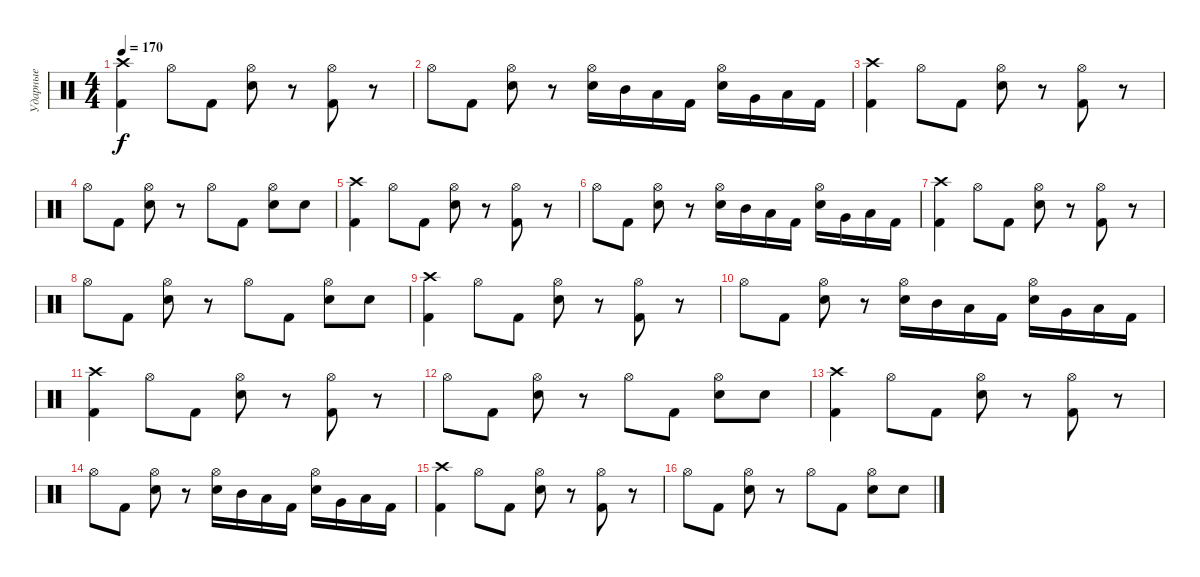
\track ("Ударные" "Ударные") {instrument percussion}
\staff {score}
\articulation defaults
\ts (4 4)
\tempo 170
\clef neutral
\ks c
("Crash high (hit)" "Kick (hit) 2").4{dy f} "Hi-Hat (open)".8 "Kick (hit) 2".8 ("Hi-Hat (open)" "Electric Snare (hit)").8 r.8 ("Hi-Hat (open)" "Kick (hit) 2").8 r.8 |
"Hi-Hat (open)".8 "Kick (hit) 2".8 ("Hi-Hat (open)" "Electric Snare (hit)").8 r.8 ("Hi-Hat (open)" "Electric Snare (hit)").16 "Mid Tom (hit)".16 "Low Tom (hit)".16 "Kick (hit) 2".16 ("Hi-Hat (open)" "Electric Snare (hit)").16 "Very Low Tom (hit)".16 "Low Floor Tom (hit)".16 "Kick (hit) 2".16 |
("Crash high (hit)" "Kick (hit) 2").4 "Hi-Hat (open)".8 "Kick (hit) 2".8 ("Hi-Hat (open)" "Electric Snare (hit)").8 r.8 ("Hi-Hat (open)" "Kick (hit) 2").8 r.8 |
"Hi-Hat (open)".8 "Kick (hit) 2".8 ("Hi-Hat (open)" "Electric Snare (hit)").8 r.8 "Hi-Hat (open)".8 "Kick (hit) 2".8 ("Hi-Hat (open)" "Electric Snare (hit)").8 "Electric Snare (hit)".8 |
("Crash high (hit)" "Kick (hit) 2").4 "Hi-Hat (open)".8 "Kick (hit) 2".8 ("Hi-Hat (open)" "Electric Snare (hit)").8 r.8 ("Hi-Hat (open)" "Kick (hit) 2").8 r.8 |
"Hi-Hat (open)".8 "Kick (hit) 2".8 ("Hi-Hat (open)" "Electric Snare (hit)").8 r.8 ("Hi-Hat (open)" "Electric Snare (hit)").16 "Mid Tom (hit)".16 "Low Tom (hit)".16 "Kick (hit) 2".16 ("Hi-Hat (open)" "Electric Snare (hit)").16 "Very Low Tom (hit)".16 "Low Floor Tom (hit)".16 "Kick (hit) 2".16 |
("Crash high (hit)" "Kick (hit) 2").4 "Hi-Hat (open)".8 "Kick (hit) 2".8 ("Hi-Hat (open)" "Electric Snare (hit)").8 r.8 ("Hi-Hat (open)" "Kick (hit) 2").8 r.8 |
"Hi-Hat (open)".8 "Kick (hit) 2".8 ("Hi-Hat (open)" "Electric Snare (hit)").8 r.8 "Hi-Hat (open)".8 "Kick (hit) 2".8 ("Hi-Hat (open)" "Electric Snare (hit)").8 "Electric Snare (hit)".8 |
("Crash high (hit)" "Kick (hit) 2").4 "Hi-Hat (open)".8 "Kick (hit) 2".8 ("Hi-Hat (open)" "Electric Snare (hit)").8 r.8 ("Hi-Hat (open)" "Kick (hit) 2").8 r.8 |
"Hi-Hat (open)".8 "Kick (hit) 2".8 ("Hi-Hat (open)" "Electric Snare (hit)").8 r.8 ("Hi-Hat (open)" "Electric Snare (hit)").16 "Mid Tom (hit)".16 "Low Tom (hit)".16 "Kick (hit) 2".16 ("Hi-Hat (open)" "Electric Snare (hit)").16 "Very Low Tom (hit)".16 "Low Floor Tom (hit)".16 "Kick (hit) 2".16 |
("Crash high (hit)" "Kick (hit) 2").4 "Hi-Hat (open)".8 "Kick (hit) 2".8 ("Hi-Hat (open)" "Electric Snare (hit)").8 r.8 ("Hi-Hat (open)" "Kick (hit) 2").8 r.8 |
"Hi-Hat (open)".8 "Kick (hit) 2".8 ("Hi-Hat (open)" "Electric Snare (hit)").8 r.8 "Hi-Hat (open)".8 "Kick (hit) 2".8 ("Hi-Hat (open)" "Electric Snare (hit)").8 "Electric Snare (hit)".8 |
("Crash high (hit)" "Kick (hit) 2").4 "Hi-Hat (open)".8 "Kick (hit) 2".8 ("Hi-Hat (open)" "Electric Snare (hit)").8 r.8 ("Hi-Hat (open)" "Kick (hit) 2").8 r.8 |
"Hi-Hat (open)".8 "Kick (hit) 2".8 ("Hi-Hat (open)" "Electric Snare (hit)").8 r.8 ("Hi-Hat (open)" "Electric Snare (hit)").16 "Mid Tom (hit)".16 "Low Tom (hit)".16 "Kick (hit) 2".16 ("Hi-Hat (open)" "Electric Snare (hit)").16 "Very Low Tom (hit)".16 "Low Floor Tom (hit)".16 "Kick (hit) 2".16 |
("Crash high (hit)" "Kick (hit) 2").4 "Hi-Hat (open)".8 "Kick (hit) 2".8 ("Hi-Hat (open)" "Electric Snare (hit)").8 r.8 ("Hi-Hat (open)" "Kick (hit) 2").8 r.8 |
"Hi-Hat (open)".8 "Kick (hit) 2".8 ("Hi-Hat (open)" "Electric Snare (hit)").8 r.8 "Hi-Hat (open)".8 "Kick (hit) 2".8 ("Hi-Hat (open)" "Electric Snare (hit)").8 "Electric Snare (hit)".8
